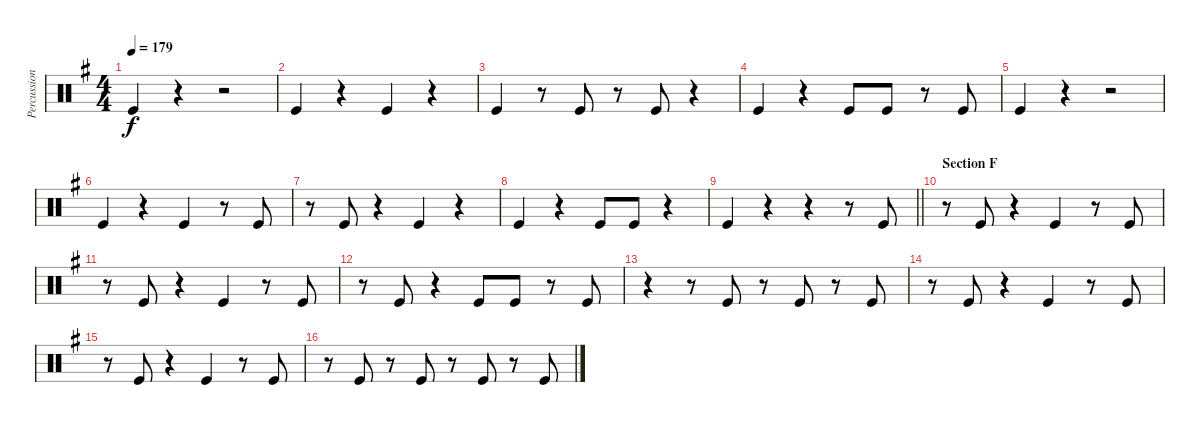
\track ("Percussion 02" "Percussion") {instrument percussion}
\staff {score}
\articulation defaults
\ts (4 4)
\tempo 179
\clef neutral
\ks g "Kick (hit)".4{dy f}
r.4 r.2 |
"Kick (hit)".4 r.4 "Kick (hit)".4 r.4 |
"Kick (hit)".4 r.8 "Kick (hit)".8 r.8 "Kick (hit)".8 r.4 |
"Kick (hit)".4 r.4 "Kick (hit)".8 "Kick (hit)".8 r.8 "Kick (hit)".8 |
"Kick (hit)".4 r.4 r.2 |
"Kick (hit)".4 r.4 "Kick (hit)".4 r.8 "Kick (hit)".8 |
r.8 "Kick (hit)".8 r.4 "Kick (hit)".4 r.4 |
"Kick (hit)".4 r.4 "Kick (hit)".8 "Kick (hit)".8 r.4 |
\barLineRight lightlight "Kick (hit)".4
r.4 r.4 r.8 "Kick (hit)".8 |
\section ("" "Section F")
r.8 "Kick (hit)".8 r.4 "Kick (hit)".4 r.8 "Kick (hit)".8 |
r.8 "Kick (hit)".8 r.4 "Kick (hit)".4 r.8 "Kick (hit)".8 |
r.8 "Kick (hit)".8 r.4 "Kick (hit)".8 "Kick (hit)".8 r.8 "Kick (hit)".8 |
r.4 r.8 "Kick (hit)".8 r.8 "Kick (hit)".8 r.8 "Kick (hit)".8 |
r.8 "Kick (hit)".8 r.4 "Kick (hit)".4 r.8 "Kick (hit)".8 |
r.8 "Kick (hit)".8 r.4 "Kick (hit)".4 r.8 "Kick (hit)".8 |
r.8 "Kick (hit)".8 r.8 "Kick (hit)".8 r.8 "Kick (hit)".8 r.8 "Kick (hit)".8
